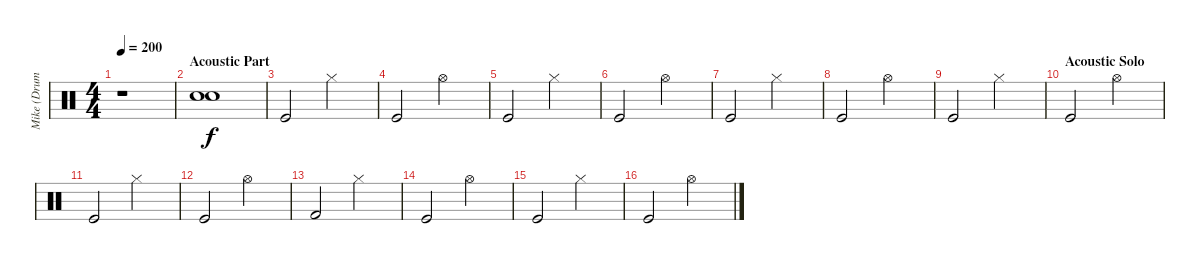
\track ("Mike (Drums)" "Mike (Drum") {instrument percussion}
\staff {score}
\articulation defaults
\ts (4 4)
\tempo 200
\clef neutral
\ks c
r.1{dy fff} |
\section ("" "Acoustic Part")
("Snare (hit)"{t} "Snare (hit)"{t}).1{dy f} |
"Kick (hit)".2 "Hi-Hat (closed)".2 |
"Kick (hit)".2 "Hi-Hat (open)".2 |
"Kick (hit)".2 "Hi-Hat (closed)".2 |
"Kick (hit)".2 "Hi-Hat (open)".2 |
"Kick (hit)".2 "Hi-Hat (closed)".2 |
"Kick (hit)".2 "Hi-Hat (open)".2 |
"Kick (hit)".2 "Hi-Hat (closed)".2 |
\section ("" "Acoustic Solo")
"Kick (hit)".2 "Hi-Hat (open)".2 |
"Kick (hit)".2 "Hi-Hat (closed)".2 |
"Kick (hit)".2 "Hi-Hat (open)".2 |
"Kick (hit) 2".2 "Hi-Hat (closed)".2 |
"Kick (hit)".2 "Hi-Hat (open)".2 |
"Kick (hit)".2 "Hi-Hat (closed)".2 |
"Kick (hit)".2 "Hi-Hat (open)".2
